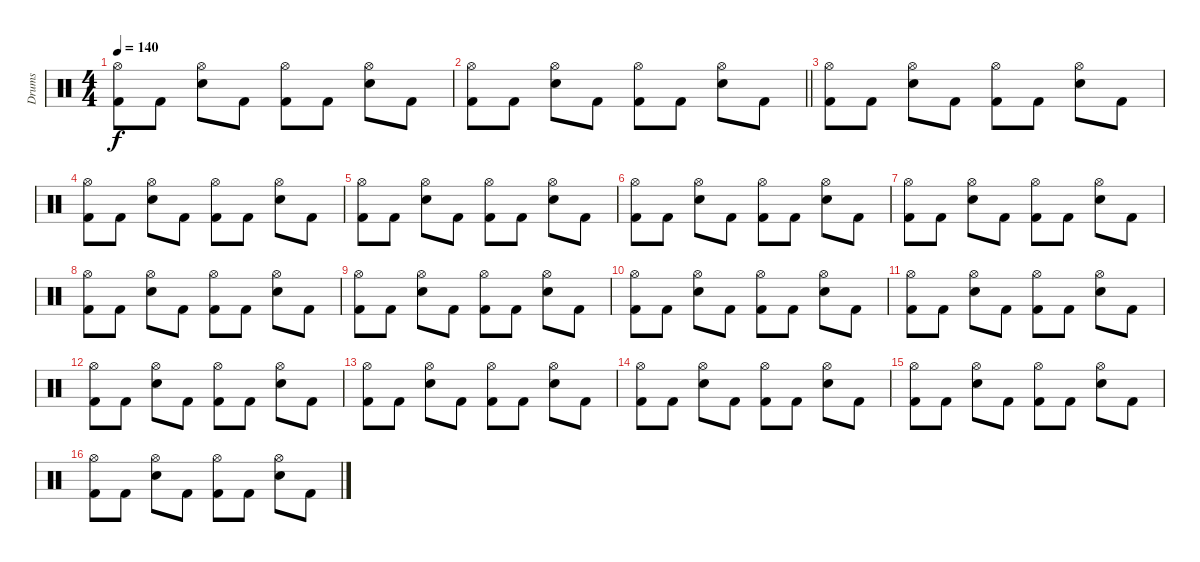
\track ("Drums" "Drums") {instrument percussion}
\staff {score}
\articulation defaults
\ts (4 4)
\tempo 140
\clef neutral
\ks c
("Kick (hit) 2" "Hi-Hat (open)").8{dy f} "Kick (hit) 2".8 ("Electric Snare (hit)" "Hi-Hat (open)").8 "Kick (hit) 2".8 ("Kick (hit) 2" "Hi-Hat (open)").8 "Kick (hit) 2".8 ("Electric Snare (hit)" "Hi-Hat (open)").8 "Kick (hit) 2".8 |
\barLineRight lightlight
("Kick (hit) 2" "Hi-Hat (open)").8 "Kick (hit) 2".8 ("Electric Snare (hit)" "Hi-Hat (open)").8 "Kick (hit) 2".8 ("Kick (hit) 2" "Hi-Hat (open)").8 "Kick (hit) 2".8 ("Electric Snare (hit)" "Hi-Hat (open)").8 "Kick (hit) 2".8 |
("Kick (hit) 2" "Hi-Hat (open)").8 "Kick (hit) 2".8 ("Electric Snare (hit)" "Hi-Hat (open)").8 "Kick (hit) 2".8 ("Kick (hit) 2" "Hi-Hat (open)").8 "Kick (hit) 2".8 ("Electric Snare (hit)" "Hi-Hat (open)").8 "Kick (hit) 2".8 |
("Kick (hit) 2" "Hi-Hat (open)").8 "Kick (hit) 2".8 ("Electric Snare (hit)" "Hi-Hat (open)").8 "Kick (hit) 2".8 ("Kick (hit) 2" "Hi-Hat (open)").8 "Kick (hit) 2".8 ("Electric Snare (hit)" "Hi-Hat (open)").8 "Kick (hit) 2".8 |
("Kick (hit) 2" "Hi-Hat (open)").8 "Kick (hit) 2".8 ("Electric Snare (hit)" "Hi-Hat (open)").8 "Kick (hit) 2".8 ("Kick (hit) 2" "Hi-Hat (open)").8 "Kick (hit) 2".8 ("Electric Snare (hit)" "Hi-Hat (open)").8 "Kick (hit) 2".8 |
("Kick (hit) 2" "Hi-Hat (open)").8 "Kick (hit) 2".8 ("Electric Snare (hit)" "Hi-Hat (open)").8 "Kick (hit) 2".8 ("Kick (hit) 2" "Hi-Hat (open)").8 "Kick (hit) 2".8 ("Electric Snare (hit)" "Hi-Hat (open)").8 "Kick (hit) 2".8 |
("Kick (hit) 2" "Hi-Hat (open)").8 "Kick (hit) 2".8 ("Electric Snare (hit)" "Hi-Hat (open)").8 "Kick (hit) 2".8 ("Kick (hit) 2" "Hi-Hat (open)").8 "Kick (hit) 2".8 ("Electric Snare (hit)" "Hi-Hat (open)").8 "Kick (hit) 2".8 |
("Kick (hit) 2" "Hi-Hat (open)").8 "Kick (hit) 2".8 ("Electric Snare (hit)" "Hi-Hat (open)").8 "Kick (hit) 2".8 ("Kick (hit) 2" "Hi-Hat (open)").8 "Kick (hit) 2".8 ("Electric Snare (hit)" "Hi-Hat (open)").8 "Kick (hit) 2".8 |
("Kick (hit) 2" "Hi-Hat (open)").8 "Kick (hit) 2".8 ("Electric Snare (hit)" "Hi-Hat (open)").8 "Kick (hit) 2".8 ("Kick (hit) 2" "Hi-Hat (open)").8 "Kick (hit) 2".8 ("Electric Snare (hit)" "Hi-Hat (open)").8 "Kick (hit) 2".8 |
("Kick (hit) 2" "Hi-Hat (open)").8 "Kick (hit) 2".8 ("Electric Snare (hit)" "Hi-Hat (open)").8 "Kick (hit) 2".8 ("Kick (hit) 2" "Hi-Hat (open)").8 "Kick (hit) 2".8 ("Electric Snare (hit)" "Hi-Hat (open)").8 "Kick (hit) 2".8 |
("Kick (hit) 2" "Hi-Hat (open)").8 "Kick (hit) 2".8 ("Electric Snare (hit)" "Hi-Hat (open)").8 "Kick (hit) 2".8 ("Kick (hit) 2" "Hi-Hat (open)").8 "Kick (hit) 2".8 ("Electric Snare (hit)" "Hi-Hat (open)").8 "Kick (hit) 2".8 |
("Kick (hit) 2" "Hi-Hat (open)").8 "Kick (hit) 2".8 ("Electric Snare (hit)" "Hi-Hat (open)").8 "Kick (hit) 2".8 ("Kick (hit) 2" "Hi-Hat (open)").8 "Kick (hit) 2".8 ("Electric Snare (hit)" "Hi-Hat (open)").8 "Kick (hit) 2".8 |
("Kick (hit) 2" "Hi-Hat (open)").8 "Kick (hit) 2".8 ("Electric Snare (hit)" "Hi-Hat (open)").8 "Kick (hit) 2".8 ("Kick (hit) 2" "Hi-Hat (open)").8 "Kick (hit) 2".8 ("Electric Snare (hit)" "Hi-Hat (open)").8 "Kick (hit) 2".8 |
("Kick (hit) 2" "Hi-Hat (open)").8 "Kick (hit) 2".8 ("Electric Snare (hit)" "Hi-Hat (open)").8 "Kick (hit) 2".8 ("Kick (hit) 2" "Hi-Hat (open)").8 "Kick (hit) 2".8 ("Electric Snare (hit)" "Hi-Hat (open)").8 "Kick (hit) 2".8 |
("Kick (hit) 2" "Hi-Hat (open)").8 "Kick (hit) 2".8 ("Electric Snare (hit)" "Hi-Hat (open)").8 "Kick (hit) 2".8 ("Kick (hit) 2" "Hi-Hat (open)").8 "Kick (hit) 2".8 ("Electric Snare (hit)" "Hi-Hat (open)").8 "Kick (hit) 2".8 |
("Kick (hit) 2" "Hi-Hat (open)").8 "Kick (hit) 2".8 ("Electric Snare (hit)" "Hi-Hat (open)").8 "Kick (hit) 2".8 ("Kick (hit) 2" "Hi-Hat (open)").8 "Kick (hit) 2".8 ("Electric Snare (hit)" "Hi-Hat (open)").8 "Kick (hit) 2".8
